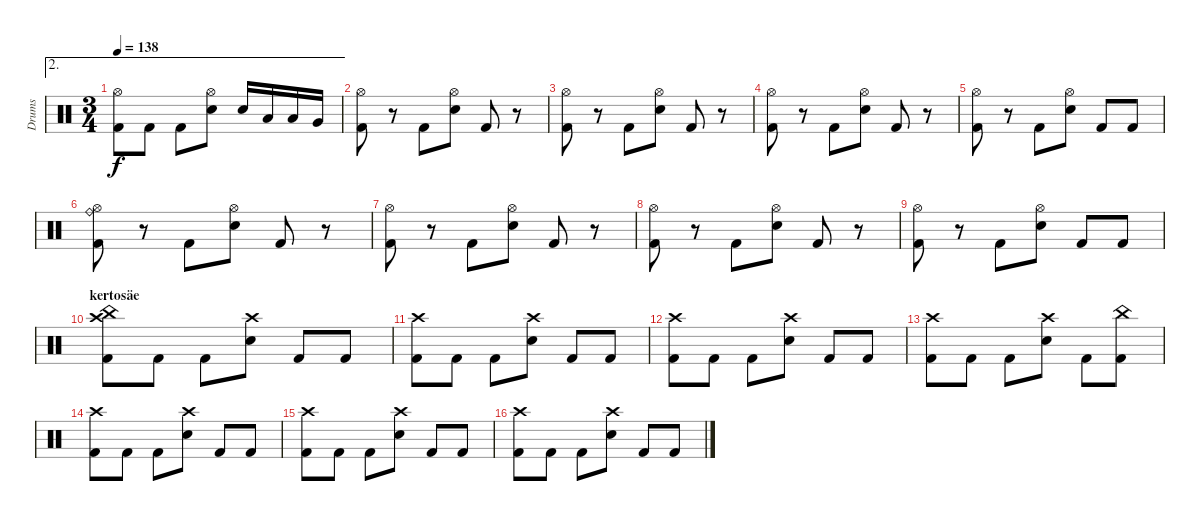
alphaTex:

\track ("Drums" "Drums") {instrument percussion}
\staff {score}
\articulation defaults
\ae 2
\ts (3 4)
\tempo 138
\clef neutral
\ks c
("Hi-Hat (open)" "Kick (hit) 2").8{dy f} "Kick (hit) 2".8 "Kick (hit) 2".8 ("Hi-Hat (open)" "Snare (hit) 2").8 "Snare (hit) 2".16 "Low Tom (hit)".16 "Low Tom (hit)".16 "Very Low Tom (hit)".16 |
("Hi-Hat (open)" "Kick (hit) 2").8 r.8 "Kick (hit) 2".8 ("Hi-Hat (open)" "Snare (hit) 2").8 "Kick (hit) 2".8 r.8 |
("Hi-Hat (open)" "Kick (hit) 2").8 r.8 "Kick (hit) 2".8 ("Hi-Hat (open)" "Snare (hit) 2").8 "Kick (hit) 2".8 r.8 |
("Hi-Hat (open)" "Kick (hit) 2").8 r.8 "Kick (hit) 2".8 ("Hi-Hat (open)" "Snare (hit) 2").8 "Kick (hit) 2".8 r.8 |
("Hi-Hat (open)" "Kick (hit) 2").8 r.8 "Kick (hit) 2".8 ("Hi-Hat (open)" "Snare (hit) 2").8 "Kick (hit) 2".8 "Kick (hit) 2".8 |
("Hi-Hat (open)" "Ride (bell)" "Kick (hit) 2").8 r.8 "Kick (hit) 2".8 ("Hi-Hat (open)" "Snare (hit) 2").8 "Kick (hit) 2".8 r.8 |
("Hi-Hat (open)" "Kick (hit) 2").8 r.8 "Kick (hit) 2".8 ("Hi-Hat (open)" "Snare (hit) 2").8 "Kick (hit) 2".8 r.8 |
("Hi-Hat (open)" "Kick (hit) 2").8 r.8 "Kick (hit) 2".8 ("Hi-Hat (open)" "Snare (hit) 2").8 "Kick (hit) 2".8 r.8 |
("Hi-Hat (open)" "Kick (hit) 2").8 r.8 "Kick (hit) 2".8 ("Hi-Hat (open)" "Snare (hit) 2").8 "Kick (hit) 2".8 "Kick (hit) 2".8 |
\section ("" "kertosäe")
("Crash high (hit)" "China (hit)" "Kick (hit) 2").8 "Kick (hit) 2".8 "Kick (hit) 2".8 ("Crash high (hit)" "Snare (hit) 2").8 "Kick (hit) 2".8 "Kick (hit) 2".8 |
("Crash high (hit)" "Kick (hit) 2").8 "Kick (hit) 2".8 "Kick (hit) 2".8 ("Crash high (hit)" "Snare (hit) 2").8 "Kick (hit) 2".8 "Kick (hit) 2".8 |
("Crash high (hit)" "Kick (hit) 2").8 "Kick (hit) 2".8 "Kick (hit) 2".8 ("Crash high (hit)" "Snare (hit) 2").8 "Kick (hit) 2".8 "Kick (hit) 2".8 |
("Crash high (hit)" "Kick (hit) 2").8 "Kick (hit) 2".8 "Kick (hit) 2".8 ("Crash high (hit)" "Snare (hit) 2").8 "Kick (hit) 2".8 ("China (hit)" "Kick (hit) 2").8 |
("Crash high (hit)" "Kick (hit) 2").8 "Kick (hit) 2".8 "Kick (hit) 2".8 ("Crash high (hit)" "Snare (hit) 2").8 "Kick (hit) 2".8 "Kick (hit) 2".8 |
("Crash high (hit)" "Kick (hit) 2").8 "Kick (hit) 2".8 "Kick (hit) 2".8 ("Crash high (hit)" "Snare (hit) 2").8 "Kick (hit) 2".8 "Kick (hit) 2".8 |
("Crash high (hit)" "Kick (hit) 2").8 "Kick (hit) 2".8 "Kick (hit) 2".8 ("Crash high (hit)" "Snare (hit) 2").8 "Kick (hit) 2".8 "Kick (hit) 2".8
